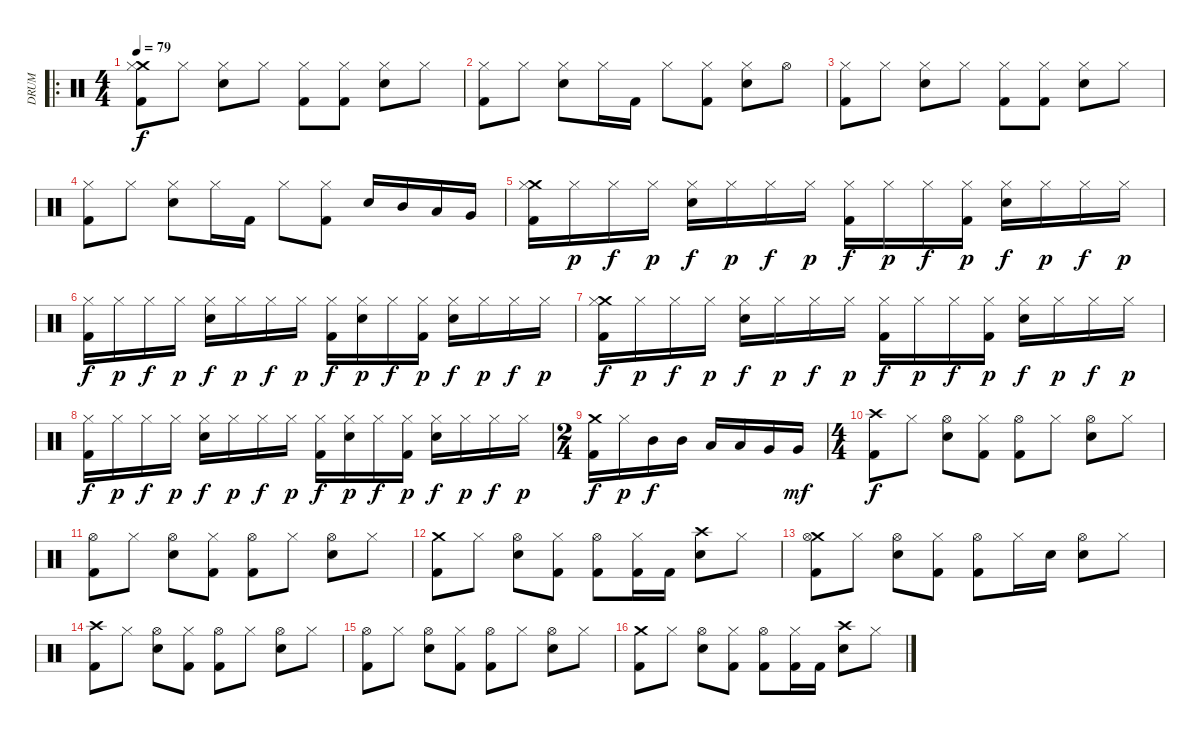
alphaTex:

\track ("DRUM" "DRUM") {instrument percussion}
\staff {score}
\articulation defaults
\ro
\ts (4 4)
\tempo 79
\clef neutral
\ks c
("Crash medium (hit)" "Hi-Hat (closed)" "Kick (hit) 2").8{dy f} "Hi-Hat (closed)".8 ("Snare (hit) 2" "Hi-Hat (closed)").8 "Hi-Hat (closed)".8 ("Hi-Hat (closed)" "Kick (hit) 2").8 ("Hi-Hat (closed)" "Kick (hit) 2").8 ("Snare (hit) 2" "Hi-Hat (closed)").8 "Hi-Hat (closed)".8 |
("Hi-Hat (closed)" "Kick (hit) 2").8 "Hi-Hat (closed)".8 ("Snare (hit) 2" "Hi-Hat (closed)").8 "Hi-Hat (closed)".16 "Kick (hit) 2".16 "Hi-Hat (closed)".8 ("Hi-Hat (closed)" "Kick (hit) 2").8 ("Snare (hit) 2" "Hi-Hat (closed)").8 "Hi-Hat (open)".8 |
("Hi-Hat (closed)" "Kick (hit) 2").8 "Hi-Hat (closed)".8 ("Snare (hit) 2" "Hi-Hat (closed)").8 "Hi-Hat (closed)".8 ("Hi-Hat (closed)" "Kick (hit) 2").8 ("Hi-Hat (closed)" "Kick (hit) 2").8 ("Snare (hit) 2" "Hi-Hat (closed)").8 "Hi-Hat (closed)".8 |
("Hi-Hat (closed)" "Kick (hit) 2").8 "Hi-Hat (closed)".8 ("Snare (hit) 2" "Hi-Hat (closed)").8 "Hi-Hat (closed)".16 "Kick (hit) 2".16 "Hi-Hat (closed)".8 ("Hi-Hat (closed)" "Kick (hit) 2").8 "Snare (hit) 2".16 "Mid Tom (hit)".16 "Low Tom (hit)".16 "Very Low Tom (hit)".16 |
("Crash medium (hit)" "Hi-Hat (closed)" "Kick (hit) 2").16 "Hi-Hat (closed)".16{dy p} "Hi-Hat (closed)".16{dy f} "Hi-Hat (closed)".16{dy p} ("Snare (hit) 2" "Hi-Hat (closed)").16{dy f} "Hi-Hat (closed)".16{dy p} "Hi-Hat (closed)".16{dy f} "Hi-Hat (closed)".16{dy p} ("Hi-Hat (closed)" "Kick (hit) 2").16{dy f} "Hi-Hat (closed)".16{dy p} "Hi-Hat (closed)".16{dy f} ("Hi-Hat (closed)" "Kick (hit) 2").16{dy p} ("Snare (hit) 2" "Hi-Hat (closed)").16{dy f} "Hi-Hat (closed)".16{dy p} "Hi-Hat (closed)".16{dy f} "Hi-Hat (closed)".16{dy p} |
("Hi-Hat (closed)" "Kick (hit) 2").16{dy f} "Hi-Hat (closed)".16{dy p} "Hi-Hat (closed)".16{dy f} "Hi-Hat (closed)".16{dy p} ("Snare (hit) 2" "Hi-Hat (closed)").16{dy f} "Hi-Hat (closed)".16{dy p} "Hi-Hat (closed)".16{dy f} "Hi-Hat (closed)".16{dy p} ("Hi-Hat (closed)" "Kick (hit) 2").16{dy f} ("Snare (hit) 2" "Hi-Hat (closed)").16{dy p} "Hi-Hat (closed)".16{dy f} ("Hi-Hat (closed)" "Kick (hit) 2").16{dy p} ("Snare (hit) 2" "Hi-Hat (closed)").16{dy f} "Hi-Hat (closed)".16{dy p} "Hi-Hat (closed)".16{dy f} "Hi-Hat (closed)".16{dy p} |
("Crash medium (hit)" "Hi-Hat (closed)" "Kick (hit) 2").16{dy f} "Hi-Hat (closed)".16{dy p} "Hi-Hat (closed)".16{dy f} "Hi-Hat (closed)".16{dy p} ("Snare (hit) 2" "Hi-Hat (closed)").16{dy f} "Hi-Hat (closed)".16{dy p} "Hi-Hat (closed)".16{dy f} "Hi-Hat (closed)".16{dy p} ("Hi-Hat (closed)" "Kick (hit) 2").16{dy f} "Hi-Hat (closed)".16{dy p} "Hi-Hat (closed)".16{dy f} ("Hi-Hat (closed)" "Kick (hit) 2").16{dy p} ("Snare (hit) 2" "Hi-Hat (closed)").16{dy f} "Hi-Hat (closed)".16{dy p} "Hi-Hat (closed)".16{dy f} "Hi-Hat (closed)".16{dy p} |
("Hi-Hat (closed)" "Kick (hit) 2").16{dy f} "Hi-Hat (closed)".16{dy p} "Hi-Hat (closed)".16{dy f} "Hi-Hat (closed)".16{dy p} ("Snare (hit) 2" "Hi-Hat (closed)").16{dy f} "Hi-Hat (closed)".16{dy p} "Hi-Hat (closed)".16{dy f} "Hi-Hat (closed)".16{dy p} ("Hi-Hat (closed)" "Kick (hit) 2").16{dy f} ("Snare (hit) 2" "Hi-Hat (closed)").16{dy p} "Hi-Hat (closed)".16{dy f} ("Hi-Hat (closed)" "Kick (hit) 2").16{dy p} ("Snare (hit) 2" "Hi-Hat (closed)").16{dy f} "Hi-Hat (closed)".16{dy p} "Hi-Hat (closed)".16{dy f} "Hi-Hat (closed)".16{dy p} |
\ts (2 4)
("Crash medium (hit)" "Kick (hit) 2").16{dy f} "Hi-Hat (closed)".16{dy p} "Mid Tom (hit)".16{dy f} "Mid Tom (hit)".16 "Low Tom (hit)".16 "Low Tom (hit)".16 "Very Low Tom (hit)".16 "Very Low Tom (hit)".16{dy mf} |
\ts (4 4)
("Crash high (hit)" "Kick (hit) 2").8{dy f} "Hi-Hat (closed)".8 ("Snare (hit) 2" "Hi-Hat (open)").8 ("Hi-Hat (closed)" "Kick (hit) 2").8 ("Hi-Hat (open)" "Kick (hit) 2").8 "Hi-Hat (closed)".8 ("Snare (hit) 2" "Hi-Hat (open)").8 "Hi-Hat (closed)".8 |
("Hi-Hat (open)" "Kick (hit) 2").8 "Hi-Hat (closed)".8 ("Snare (hit) 2" "Hi-Hat (open)").8 ("Hi-Hat (closed)" "Kick (hit) 2").8 ("Hi-Hat (open)" "Kick (hit) 2").8 "Hi-Hat (closed)".8 ("Snare (hit) 2" "Hi-Hat (open)").8 "Hi-Hat (closed)".8 |
("Crash medium (hit)" "Kick (hit) 2").8 "Hi-Hat (closed)".8 ("Snare (hit) 2" "Hi-Hat (open)").8 ("Hi-Hat (closed)" "Kick (hit) 2").8 ("Hi-Hat (open)" "Kick (hit) 2").8 ("Hi-Hat (closed)" "Kick (hit) 2").16 "Kick (hit) 2".16 ("Crash high (hit)" "Snare (hit) 2").8 "Hi-Hat (closed)".8 |
("Crash medium (hit)" "Hi-Hat (open)" "Kick (hit) 2").8 "Hi-Hat (closed)".8 ("Snare (hit) 2" "Hi-Hat (open)").8 ("Hi-Hat (closed)" "Kick (hit) 2").8 ("Hi-Hat (open)" "Kick (hit) 2").8 "Hi-Hat (closed)".16 "Snare (hit) 2".16 ("Snare (hit) 2" "Hi-Hat (open)").8 "Hi-Hat (closed)".8 |
("Crash high (hit)" "Kick (hit) 2").8 "Hi-Hat (closed)".8 ("Snare (hit) 2" "Hi-Hat (open)").8 ("Hi-Hat (closed)" "Kick (hit) 2").8 ("Hi-Hat (open)" "Kick (hit) 2").8 "Hi-Hat (closed)".8 ("Snare (hit) 2" "Hi-Hat (open)").8 "Hi-Hat (closed)".8 |
("Hi-Hat (open)" "Kick (hit) 2").8 "Hi-Hat (closed)".8 ("Snare (hit) 2" "Hi-Hat (open)").8 ("Hi-Hat (closed)" "Kick (hit) 2").8 ("Hi-Hat (open)" "Kick (hit) 2").8 "Hi-Hat (closed)".8 ("Snare (hit) 2" "Hi-Hat (open)").8 "Hi-Hat (closed)".8 |
("Crash medium (hit)" "Kick (hit) 2").8 "Hi-Hat (closed)".8 ("Snare (hit) 2" "Hi-Hat (open)").8 ("Hi-Hat (closed)" "Kick (hit) 2").8 ("Hi-Hat (open)" "Kick (hit) 2").8 ("Hi-Hat (closed)" "Kick (hit) 2").16 "Kick (hit) 2".16 ("Crash high (hit)" "Snare (hit) 2").8 "Hi-Hat (closed)".8
